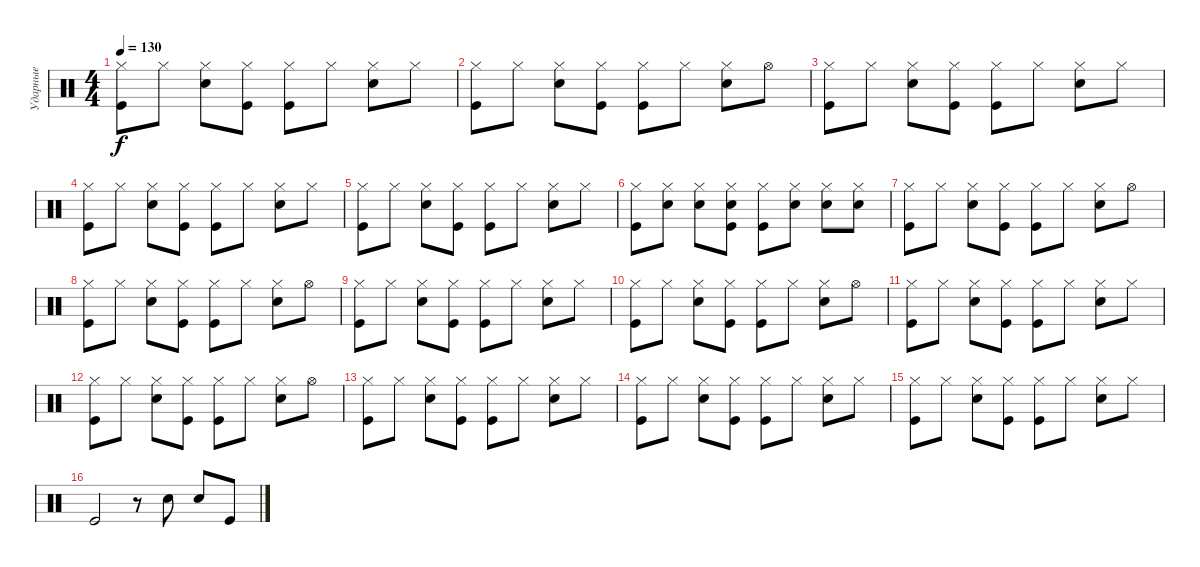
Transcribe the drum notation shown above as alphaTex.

\track ("Ударные" "Ударные") {instrument percussion}
\staff {score}
\articulation defaults
\ts (4 4)
\tempo 130
\clef neutral
\ks c
("Hi-Hat (closed)" "Kick (hit)").8{dy f} "Hi-Hat (closed)".8 ("Hi-Hat (closed)" "Snare (hit) 2").8 ("Hi-Hat (closed)" "Kick (hit)").8 ("Hi-Hat (closed)" "Kick (hit)").8 "Hi-Hat (closed)".8 ("Hi-Hat (closed)" "Snare (hit) 2").8 "Hi-Hat (closed)".8 |
("Hi-Hat (closed)" "Kick (hit)").8 "Hi-Hat (closed)".8 ("Hi-Hat (closed)" "Snare (hit) 2").8 ("Hi-Hat (closed)" "Kick (hit)").8 ("Hi-Hat (closed)" "Kick (hit)").8 "Hi-Hat (closed)".8 ("Hi-Hat (closed)" "Snare (hit) 2").8 "Hi-Hat (open)".8 |
("Hi-Hat (closed)" "Kick (hit)").8 "Hi-Hat (closed)".8 ("Hi-Hat (closed)" "Snare (hit) 2").8 ("Hi-Hat (closed)" "Kick (hit)").8 ("Hi-Hat (closed)" "Kick (hit)").8 "Hi-Hat (closed)".8 ("Hi-Hat (closed)" "Snare (hit) 2").8 "Hi-Hat (closed)".8 |
("Hi-Hat (closed)" "Kick (hit)").8 "Hi-Hat (closed)".8 ("Hi-Hat (closed)" "Snare (hit) 2").8 ("Hi-Hat (closed)" "Kick (hit)").8 ("Hi-Hat (closed)" "Kick (hit)").8 "Hi-Hat (closed)".8 ("Hi-Hat (closed)" "Snare (hit) 2").8 "Hi-Hat (closed)".8 |
("Hi-Hat (closed)" "Kick (hit)").8 "Hi-Hat (closed)".8 ("Hi-Hat (closed)" "Snare (hit) 2").8 ("Hi-Hat (closed)" "Kick (hit)").8 ("Hi-Hat (closed)" "Kick (hit)").8 "Hi-Hat (closed)".8 ("Hi-Hat (closed)" "Snare (hit) 2").8 "Hi-Hat (closed)".8 |
("Hi-Hat (closed)" "Kick (hit)").8 ("Hi-Hat (closed)" "Snare (hit) 2").8 ("Hi-Hat (closed)" "Snare (hit) 2").8 ("Hi-Hat (closed)" "Kick (hit)" "Snare (hit) 2").8 ("Hi-Hat (closed)" "Kick (hit)").8 ("Hi-Hat (closed)" "Snare (hit) 2").8 ("Hi-Hat (closed)" "Snare (hit) 2").8 ("Hi-Hat (closed)" "Snare (hit) 2").8 |
("Hi-Hat (closed)" "Kick (hit)").8 "Hi-Hat (closed)".8 ("Hi-Hat (closed)" "Snare (hit) 2").8 ("Hi-Hat (closed)" "Kick (hit)").8 ("Hi-Hat (closed)" "Kick (hit)").8 "Hi-Hat (closed)".8 ("Hi-Hat (closed)" "Snare (hit) 2").8 "Hi-Hat (open)".8 |
("Hi-Hat (closed)" "Kick (hit)").8 "Hi-Hat (closed)".8 ("Hi-Hat (closed)" "Snare (hit) 2").8 ("Hi-Hat (closed)" "Kick (hit)").8 ("Hi-Hat (closed)" "Kick (hit)").8 "Hi-Hat (closed)".8 ("Hi-Hat (closed)" "Snare (hit) 2").8 "Hi-Hat (open)".8 |
("Hi-Hat (closed)" "Kick (hit)").8 "Hi-Hat (closed)".8 ("Hi-Hat (closed)" "Snare (hit) 2").8 ("Hi-Hat (closed)" "Kick (hit)").8 ("Hi-Hat (closed)" "Kick (hit)").8 "Hi-Hat (closed)".8 ("Hi-Hat (closed)" "Snare (hit) 2").8 "Hi-Hat (closed)".8 |
("Hi-Hat (closed)" "Kick (hit)").8 "Hi-Hat (closed)".8 ("Hi-Hat (closed)" "Snare (hit) 2").8 ("Hi-Hat (closed)" "Kick (hit)").8 ("Hi-Hat (closed)" "Kick (hit)").8 "Hi-Hat (closed)".8 ("Hi-Hat (closed)" "Snare (hit) 2").8 "Hi-Hat (open)".8 |
("Hi-Hat (closed)" "Kick (hit)").8 "Hi-Hat (closed)".8 ("Hi-Hat (closed)" "Snare (hit) 2").8 ("Hi-Hat (closed)" "Kick (hit)").8 ("Hi-Hat (closed)" "Kick (hit)").8 "Hi-Hat (closed)".8 ("Hi-Hat (closed)" "Snare (hit) 2").8 "Hi-Hat (closed)".8 |
("Hi-Hat (closed)" "Kick (hit)").8 "Hi-Hat (closed)".8 ("Hi-Hat (closed)" "Snare (hit) 2").8 ("Hi-Hat (closed)" "Kick (hit)").8 ("Hi-Hat (closed)" "Kick (hit)").8 "Hi-Hat (closed)".8 ("Hi-Hat (closed)" "Snare (hit) 2").8 "Hi-Hat (open)".8 |
("Hi-Hat (closed)" "Kick (hit)").8 "Hi-Hat (closed)".8 ("Hi-Hat (closed)" "Snare (hit) 2").8 ("Hi-Hat (closed)" "Kick (hit)").8 ("Hi-Hat (closed)" "Kick (hit)").8 "Hi-Hat (closed)".8 ("Hi-Hat (closed)" "Snare (hit) 2").8 "Hi-Hat (closed)".8 |
("Hi-Hat (closed)" "Kick (hit)").8 "Hi-Hat (closed)".8 ("Hi-Hat (closed)" "Snare (hit) 2").8 ("Hi-Hat (closed)" "Kick (hit)").8 ("Hi-Hat (closed)" "Kick (hit)").8 "Hi-Hat (closed)".8 ("Hi-Hat (closed)" "Snare (hit) 2").8 "Hi-Hat (closed)".8 |
("Hi-Hat (closed)" "Kick (hit)").8 "Hi-Hat (closed)".8 ("Hi-Hat (closed)" "Snare (hit) 2").8 ("Hi-Hat (closed)" "Kick (hit)").8 ("Hi-Hat (closed)" "Kick (hit)").8 "Hi-Hat (closed)".8 ("Hi-Hat (closed)" "Snare (hit) 2").8 "Hi-Hat (closed)".8 |
"Kick (hit)".2 r.8 "Snare (hit) 2".8 "Snare (hit) 2".8 "Kick (hit)".8
